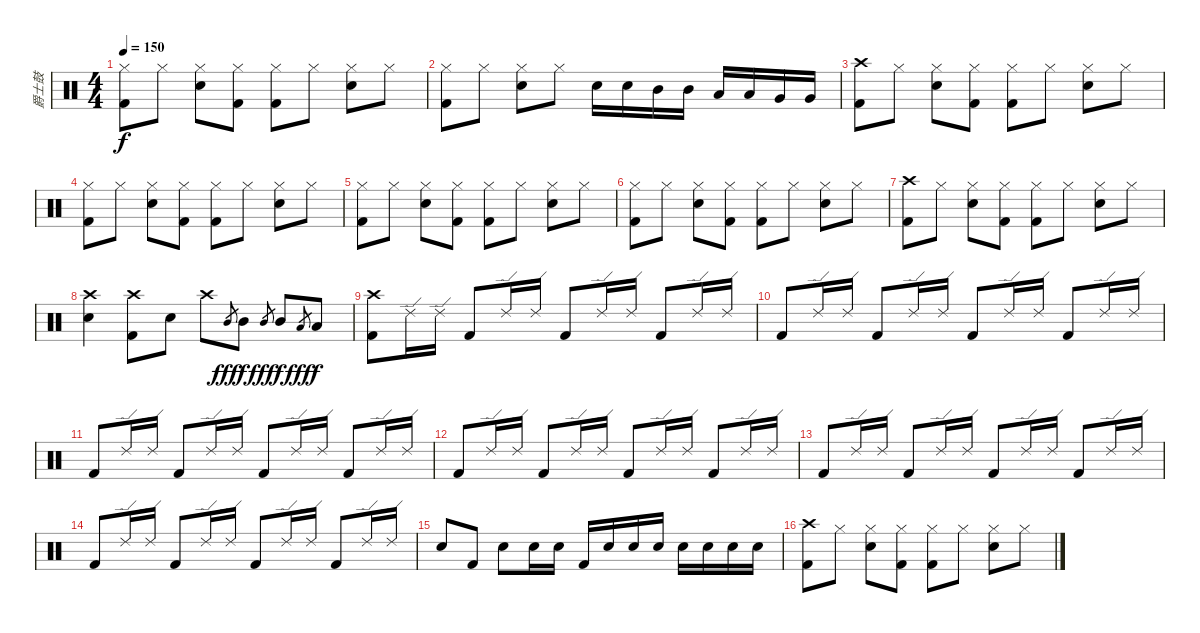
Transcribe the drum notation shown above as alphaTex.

\track ("爵士鼓" "爵士鼓") {instrument percussion}
\staff {score}
\articulation defaults
\ts (4 4)
\tempo 150
\clef neutral
\ks c
("Hi-Hat (closed)" "Kick (hit) 2").8{dy f} "Hi-Hat (closed)".8 ("Hi-Hat (closed)" "Electric Snare (hit)").8 ("Hi-Hat (closed)" "Kick (hit) 2").8 ("Hi-Hat (closed)" "Kick (hit) 2").8 "Hi-Hat (closed)".8 ("Hi-Hat (closed)" "Electric Snare (hit)").8 "Hi-Hat (closed)".8 |
("Hi-Hat (closed)" "Kick (hit) 2").8 "Hi-Hat (closed)".8 ("Hi-Hat (closed)" "Electric Snare (hit)").8 "Hi-Hat (closed)".8 "Electric Snare (hit)".16 "Electric Snare (hit)".16 "Mid Tom (hit)".16 "Mid Tom (hit)".16 "Low Tom (hit)".16 "Low Tom (hit)".16 "Very Low Tom (hit)".16 "Very Low Tom (hit)".16 |
("Crash high (hit)" "Kick (hit) 2").8 "Hi-Hat (closed)".8 ("Hi-Hat (closed)" "Electric Snare (hit)").8 ("Hi-Hat (closed)" "Kick (hit) 2").8 ("Hi-Hat (closed)" "Kick (hit) 2").8 "Hi-Hat (closed)".8 ("Hi-Hat (closed)" "Electric Snare (hit)").8 "Hi-Hat (closed)".8 |
("Hi-Hat (closed)" "Kick (hit) 2").8 "Hi-Hat (closed)".8 ("Hi-Hat (closed)" "Electric Snare (hit)").8 ("Hi-Hat (closed)" "Kick (hit) 2").8 ("Hi-Hat (closed)" "Kick (hit) 2").8 "Hi-Hat (closed)".8 ("Hi-Hat (closed)" "Electric Snare (hit)").8 "Hi-Hat (closed)".8 |
("Hi-Hat (closed)" "Kick (hit) 2").8 "Hi-Hat (closed)".8 ("Hi-Hat (closed)" "Electric Snare (hit)").8 ("Hi-Hat (closed)" "Kick (hit) 2").8 ("Hi-Hat (closed)" "Kick (hit) 2").8 "Hi-Hat (closed)".8 ("Hi-Hat (closed)" "Electric Snare (hit)").8 "Hi-Hat (closed)".8 |
("Hi-Hat (closed)" "Kick (hit) 2").8 "Hi-Hat (closed)".8 ("Hi-Hat (closed)" "Electric Snare (hit)").8 ("Hi-Hat (closed)" "Kick (hit) 2").8 ("Hi-Hat (closed)" "Kick (hit) 2").8 "Hi-Hat (closed)".8 ("Hi-Hat (closed)" "Electric Snare (hit)").8 "Hi-Hat (closed)".8 |
("Crash high (hit)" "Kick (hit) 2").8 "Hi-Hat (closed)".8 ("Hi-Hat (closed)" "Electric Snare (hit)").8 ("Hi-Hat (closed)" "Kick (hit) 2").8 ("Hi-Hat (closed)" "Kick (hit) 2").8 "Hi-Hat (closed)".8 ("Hi-Hat (closed)" "Electric Snare (hit)").8 "Hi-Hat (closed)".8 |
("Crash high (hit)" "Electric Snare (hit)").4 ("Crash high (hit)" "Kick (hit) 2").8 "Electric Snare (hit)".8 "Crash high (hit)".8 "Mid Tom (hit)".8{gr dy fff} "Mid Tom (hit)".8{dy f} "Mid Tom (hit)".8{gr dy fff} "Mid Tom (hit)".8{dy f} "Low Tom (hit)".8{gr dy fff} "Low Tom (hit)".8{dy f} |
("Crash high (hit)" "Kick (hit) 2").8 "Ride (edge) 2".16 "Ride (edge) 2".16 "Kick (hit) 2".8 "Ride (edge) 2".16 "Ride (edge) 2".16 "Kick (hit) 2".8 "Ride (edge) 2".16 "Ride (edge) 2".16 "Kick (hit) 2".8 "Ride (edge) 2".16 "Ride (edge) 2".16 |
"Kick (hit) 2".8 "Ride (edge) 2".16 "Ride (edge) 2".16 "Kick (hit) 2".8 "Ride (edge) 2".16 "Ride (edge) 2".16 "Kick (hit) 2".8 "Ride (edge) 2".16 "Ride (edge) 2".16 "Kick (hit) 2".8 "Ride (edge) 2".16 "Ride (edge) 2".16 |
"Kick (hit) 2".8 "Ride (edge) 2".16 "Ride (edge) 2".16 "Kick (hit) 2".8 "Ride (edge) 2".16 "Ride (edge) 2".16 "Kick (hit) 2".8 "Ride (edge) 2".16 "Ride (edge) 2".16 "Kick (hit) 2".8 "Ride (edge) 2".16 "Ride (edge) 2".16 |
"Kick (hit) 2".8 "Ride (edge) 2".16 "Ride (edge) 2".16 "Kick (hit) 2".8 "Ride (edge) 2".16 "Ride (edge) 2".16 "Kick (hit) 2".8 "Ride (edge) 2".16 "Ride (edge) 2".16 "Kick (hit) 2".8 "Ride (edge) 2".16 "Ride (edge) 2".16 |
"Kick (hit) 2".8 "Ride (edge) 2".16 "Ride (edge) 2".16 "Kick (hit) 2".8 "Ride (edge) 2".16 "Ride (edge) 2".16 "Kick (hit) 2".8 "Ride (edge) 2".16 "Ride (edge) 2".16 "Kick (hit) 2".8 "Ride (edge) 2".16 "Ride (edge) 2".16 |
"Kick (hit) 2".8 "Ride (edge) 2".16 "Ride (edge) 2".16 "Kick (hit) 2".8 "Ride (edge) 2".16 "Ride (edge) 2".16 "Kick (hit) 2".8 "Ride (edge) 2".16 "Ride (edge) 2".16 "Kick (hit) 2".8 "Ride (edge) 2".16 "Ride (edge) 2".16 |
"Electric Snare (hit)".8 "Kick (hit) 2".8 "Electric Snare (hit)".8 "Electric Snare (hit)".16 "Electric Snare (hit)".16 "Kick (hit) 2".16 "Electric Snare (hit)".16 "Electric Snare (hit)".16 "Electric Snare (hit)".16 "Electric Snare (hit)".16 "Electric Snare (hit)".16 "Electric Snare (hit)".16 "Electric Snare (hit)".16 |
("Crash high (hit)" "Kick (hit) 2").8 "Hi-Hat (closed)".8 ("Hi-Hat (closed)" "Electric Snare (hit)").8 ("Hi-Hat (closed)" "Kick (hit) 2").8 ("Hi-Hat (closed)" "Kick (hit) 2").8 "Hi-Hat (closed)".8 ("Hi-Hat (closed)" "Electric Snare (hit)").8 "Hi-Hat (closed)".8
